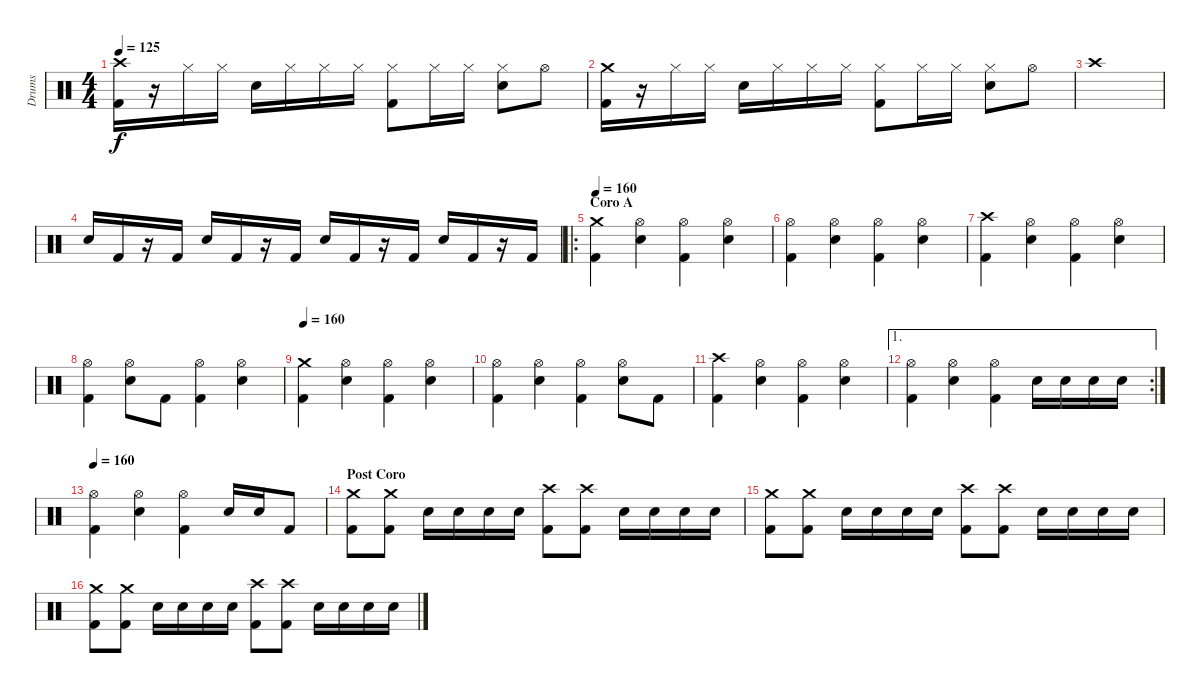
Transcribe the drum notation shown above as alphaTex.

\track ("Drums" "Drums") {instrument percussion}
\staff {score}
\articulation defaults
\ts (4 4)
\tempo 125
\clef neutral
\ks c
("Crash high (hit)" "Kick (hit) 2").16{dy f} r.16 "Hi-Hat (closed)".16 "Hi-Hat (closed)".16 "Electric Snare (hit)".16 "Hi-Hat (closed)".16 "Hi-Hat (closed)".16 "Hi-Hat (closed)".16 ("Hi-Hat (closed)" "Kick (hit) 2").8 "Hi-Hat (closed)".16 "Hi-Hat (closed)".16 ("Hi-Hat (closed)" "Electric Snare (hit)").8 "Hi-Hat (open)".8 |
("Crash medium (hit)" "Kick (hit) 2").16 r.16 "Hi-Hat (closed)".16 "Hi-Hat (closed)".16 "Electric Snare (hit)".16 "Hi-Hat (closed)".16 "Hi-Hat (closed)".16 "Hi-Hat (closed)".16 ("Hi-Hat (closed)" "Kick (hit) 2").8 "Hi-Hat (closed)".16 "Hi-Hat (closed)".16 ("Hi-Hat (closed)" "Electric Snare (hit)").8 "Hi-Hat (open)".8 |
"Crash high (hit)".1 |
"Electric Snare (hit)".16 "Kick (hit) 2".16 r.16 "Kick (hit) 2".16 "Electric Snare (hit)".16 "Kick (hit) 2".16 r.16 "Kick (hit) 2".16 "Electric Snare (hit)".16 "Kick (hit) 2".16 r.16 "Kick (hit) 2".16 "Electric Snare (hit)".16 "Kick (hit) 2".16 r.16 "Kick (hit) 2".16 |
\ro
\section ("" "Coro A")
\tempo 160
("Crash medium (hit)" "Kick (hit) 2").4 ("Hi-Hat (open)" "Electric Snare (hit)").4 ("Hi-Hat (open)" "Kick (hit) 2").4 ("Hi-Hat (open)" "Electric Snare (hit)").4 |
("Hi-Hat (open)" "Kick (hit) 2").4 ("Hi-Hat (open)" "Electric Snare (hit)").4 ("Hi-Hat (open)" "Kick (hit) 2").4 ("Hi-Hat (open)" "Electric Snare (hit)").4 |
("Crash high (hit)" "Kick (hit) 2").4 ("Hi-Hat (open)" "Electric Snare (hit)").4 ("Hi-Hat (open)" "Kick (hit) 2").4 ("Hi-Hat (open)" "Electric Snare (hit)").4 |
("Hi-Hat (open)" "Kick (hit) 2").4 ("Hi-Hat (open)" "Electric Snare (hit)").8 "Kick (hit) 2".8 ("Hi-Hat (open)" "Kick (hit) 2").4 ("Hi-Hat (open)" "Electric Snare (hit)").4 |
\tempo 160
("Crash medium (hit)" "Kick (hit) 2").4 ("Hi-Hat (open)" "Electric Snare (hit)").4 ("Hi-Hat (open)" "Kick (hit) 2").4 ("Hi-Hat (open)" "Electric Snare (hit)").4 |
("Hi-Hat (open)" "Kick (hit) 2").4 ("Hi-Hat (open)" "Electric Snare (hit)").4 ("Hi-Hat (open)" "Kick (hit) 2").4 ("Hi-Hat (open)" "Electric Snare (hit)").8 "Kick (hit) 2".8 |
("Crash high (hit)" "Kick (hit) 2").4 ("Hi-Hat (open)" "Electric Snare (hit)").4 ("Hi-Hat (open)" "Kick (hit) 2").4 ("Hi-Hat (open)" "Electric Snare (hit)").4 |
\ae 1
\rc 2
("Hi-Hat (open)" "Kick (hit) 2").4 ("Hi-Hat (open)" "Electric Snare (hit)").4 ("Hi-Hat (open)" "Kick (hit) 2").4 "Electric Snare (hit)".16 "Electric Snare (hit)".16 "Electric Snare (hit)".16 "Electric Snare (hit)".16 |
\tempo 160
("Hi-Hat (open)" "Kick (hit) 2").4 ("Hi-Hat (open)" "Electric Snare (hit)").4 ("Hi-Hat (open)" "Kick (hit) 2").4 "Electric Snare (hit)".16 "Electric Snare (hit)".16 "Kick (hit) 2".8 |
\section ("" "Post Coro")
("Crash medium (hit)" "Kick (hit) 2").8 ("Crash medium (hit)" "Kick (hit) 2").8 "Electric Snare (hit)".16 "Electric Snare (hit)".16 "Electric Snare (hit)".16 "Electric Snare (hit)".16 ("Crash high (hit)" "Kick (hit) 2").8 ("Crash high (hit)" "Kick (hit) 2").8 "Electric Snare (hit)".16 "Electric Snare (hit)".16 "Electric Snare (hit)".16 "Electric Snare (hit)".16 |
("Crash medium (hit)" "Kick (hit) 2").8 ("Crash medium (hit)" "Kick (hit) 2").8 "Electric Snare (hit)".16 "Electric Snare (hit)".16 "Electric Snare (hit)".16 "Electric Snare (hit)".16 ("Crash high (hit)" "Kick (hit) 2").8 ("Crash high (hit)" "Kick (hit) 2").8 "Electric Snare (hit)".16 "Electric Snare (hit)".16 "Electric Snare (hit)".16 "Electric Snare (hit)".16 |
("Crash medium (hit)" "Kick (hit) 2").8 ("Crash medium (hit)" "Kick (hit) 2").8 "Electric Snare (hit)".16 "Electric Snare (hit)".16 "Electric Snare (hit)".16 "Electric Snare (hit)".16 ("Crash high (hit)" "Kick (hit) 2").8 ("Crash high (hit)" "Kick (hit) 2").8 "Electric Snare (hit)".16 "Electric Snare (hit)".16 "Electric Snare (hit)".16 "Electric Snare (hit)".16
